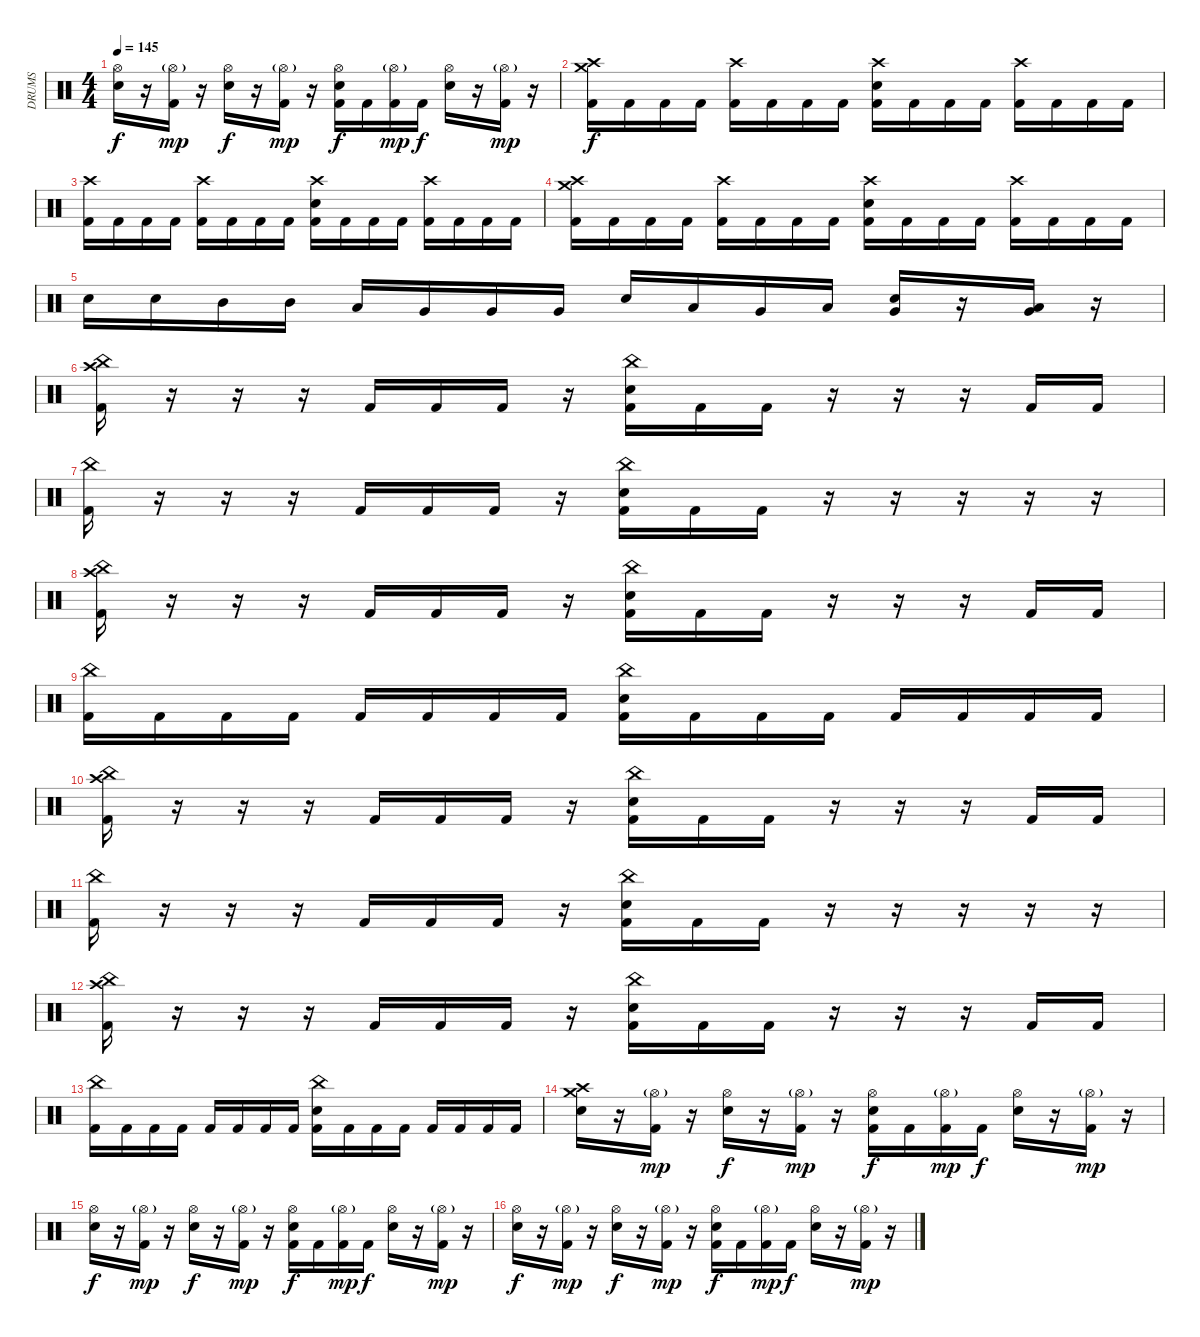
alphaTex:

\track ("DRUMS" "DRUMS") {instrument percussion}
\staff {score}
\articulation defaults
\ts (4 4)
\tempo 145
\clef neutral
\ks c
("Hi-Hat (open)" "Electric Snare (hit)").16{dy f} r.16 ("Hi-Hat (open)"{g} "Kick (hit) 2").16{dy mp} r.16 ("Hi-Hat (open)" "Electric Snare (hit)").16{dy f} r.16 ("Hi-Hat (open)"{g} "Kick (hit) 2").16{dy mp} r.16 ("Hi-Hat (open)" "Electric Snare (hit)" "Kick (hit) 2").16{dy f} "Kick (hit) 2".16 ("Hi-Hat (open)"{g} "Kick (hit) 2").16{dy mp} "Kick (hit) 2".16{dy f} ("Hi-Hat (open)" "Electric Snare (hit)").16 r.16 ("Hi-Hat (open)"{g} "Kick (hit) 2").16{dy mp} r.16 |
("Crash medium (hit)" "Crash high (hit)" "Kick (hit) 2").16{dy f} "Kick (hit) 2".16 "Kick (hit) 2".16 "Kick (hit) 2".16 ("Crash high (hit)" "Kick (hit) 2").16 "Kick (hit) 2".16 "Kick (hit) 2".16 "Kick (hit) 2".16 ("Crash high (hit)" "Electric Snare (hit)" "Kick (hit) 2").16 "Kick (hit) 2".16 "Kick (hit) 2".16 "Kick (hit) 2".16 ("Crash high (hit)" "Kick (hit) 2").16 "Kick (hit) 2".16 "Kick (hit) 2".16 "Kick (hit) 2".16 |
("Crash high (hit)" "Kick (hit) 2").16 "Kick (hit) 2".16 "Kick (hit) 2".16 "Kick (hit) 2".16 ("Crash high (hit)" "Kick (hit) 2").16 "Kick (hit) 2".16 "Kick (hit) 2".16 "Kick (hit) 2".16 ("Crash high (hit)" "Electric Snare (hit)" "Kick (hit) 2").16 "Kick (hit) 2".16 "Kick (hit) 2".16 "Kick (hit) 2".16 ("Crash high (hit)" "Kick (hit) 2").16 "Kick (hit) 2".16 "Kick (hit) 2".16 "Kick (hit) 2".16 |
("Crash high (hit)" "Crash medium (hit)" "Kick (hit) 2").16 "Kick (hit) 2".16 "Kick (hit) 2".16 "Kick (hit) 2".16 ("Crash high (hit)" "Kick (hit) 2").16 "Kick (hit) 2".16 "Kick (hit) 2".16 "Kick (hit) 2".16 ("Crash high (hit)" "Electric Snare (hit)" "Kick (hit) 2").16 "Kick (hit) 2".16 "Kick (hit) 2".16 "Kick (hit) 2".16 ("Crash high (hit)" "Kick (hit) 2").16 "Kick (hit) 2".16 "Kick (hit) 2".16 "Kick (hit) 2".16 |
"Electric Snare (hit)".16 "Electric Snare (hit)".16 "Mid Tom (hit)".16 "Mid Tom (hit)".16 "Low Tom (hit)".16 "Very Low Tom (hit)".16 "Very Low Tom (hit)".16 "Very Low Tom (hit)".16 "Electric Snare (hit)".16 "Low Tom (hit)".16 "Very Low Tom (hit)".16 "Low Floor Tom (hit)".16 ("Very Low Tom (hit)" "Electric Snare (hit)").16 r.16 ("Low Floor Tom (hit)" "Very Low Tom (hit)").16 r.16 |
("Crash high (hit)" "China (hit)" "Kick (hit) 2").16 r.16 r.16 r.16 "Kick (hit) 2".16 "Kick (hit) 2".16 "Kick (hit) 2".16 r.16 ("China (hit)" "Electric Snare (hit)" "Kick (hit) 2").16 "Kick (hit) 2".16 "Kick (hit) 2".16 r.16 r.16 r.16 "Kick (hit) 2".16 "Kick (hit) 2".16 |
("China (hit)" "Kick (hit) 2").16 r.16 r.16 r.16 "Kick (hit) 2".16 "Kick (hit) 2".16 "Kick (hit) 2".16 r.16 ("China (hit)" "Electric Snare (hit)" "Kick (hit) 2").16 "Kick (hit) 2".16 "Kick (hit) 2".16 r.16 r.16 r.16 r.16 r.16 |
("Crash high (hit)" "China (hit)" "Kick (hit) 2").16 r.16 r.16 r.16 "Kick (hit) 2".16 "Kick (hit) 2".16 "Kick (hit) 2".16 r.16 ("China (hit)" "Electric Snare (hit)" "Kick (hit) 2").16 "Kick (hit) 2".16 "Kick (hit) 2".16 r.16 r.16 r.16 "Kick (hit) 2".16 "Kick (hit) 2".16 |
("China (hit)" "Kick (hit) 2").16 "Kick (hit) 2".16 "Kick (hit) 2".16 "Kick (hit) 2".16 "Kick (hit) 2".16 "Kick (hit) 2".16 "Kick (hit) 2".16 "Kick (hit) 2".16 ("China (hit)" "Electric Snare (hit)" "Kick (hit) 2").16 "Kick (hit) 2".16 "Kick (hit) 2".16 "Kick (hit) 2".16 "Kick (hit) 2".16 "Kick (hit) 2".16 "Kick (hit) 2".16 "Kick (hit) 2".16 |
("Crash high (hit)" "China (hit)" "Kick (hit) 2").16 r.16 r.16 r.16 "Kick (hit) 2".16 "Kick (hit) 2".16 "Kick (hit) 2".16 r.16 ("China (hit)" "Electric Snare (hit)" "Kick (hit) 2").16 "Kick (hit) 2".16 "Kick (hit) 2".16 r.16 r.16 r.16 "Kick (hit) 2".16 "Kick (hit) 2".16 |
("China (hit)" "Kick (hit) 2").16 r.16 r.16 r.16 "Kick (hit) 2".16 "Kick (hit) 2".16 "Kick (hit) 2".16 r.16 ("China (hit)" "Electric Snare (hit)" "Kick (hit) 2").16 "Kick (hit) 2".16 "Kick (hit) 2".16 r.16 r.16 r.16 r.16 r.16 |
("Crash high (hit)" "China (hit)" "Kick (hit) 2").16 r.16 r.16 r.16 "Kick (hit) 2".16 "Kick (hit) 2".16 "Kick (hit) 2".16 r.16 ("China (hit)" "Electric Snare (hit)" "Kick (hit) 2").16 "Kick (hit) 2".16 "Kick (hit) 2".16 r.16 r.16 r.16 "Kick (hit) 2".16 "Kick (hit) 2".16 |
("China (hit)" "Kick (hit) 2").16 "Kick (hit) 2".16 "Kick (hit) 2".16 "Kick (hit) 2".16 "Kick (hit) 2".16 "Kick (hit) 2".16 "Kick (hit) 2".16 "Kick (hit) 2".16 ("China (hit)" "Electric Snare (hit)" "Kick (hit) 2").16 "Kick (hit) 2".16 "Kick (hit) 2".16 "Kick (hit) 2".16 "Kick (hit) 2".16 "Kick (hit) 2".16 "Kick (hit) 2".16 "Kick (hit) 2".16 |
("Crash high (hit)" "Crash medium (hit)" "Electric Snare (hit)").16 r.16 ("Hi-Hat (open)"{g} "Kick (hit) 2").16{dy mp} r.16 ("Hi-Hat (open)" "Electric Snare (hit)").16{dy f} r.16 ("Hi-Hat (open)"{g} "Kick (hit) 2").16{dy mp} r.16 ("Hi-Hat (open)" "Electric Snare (hit)" "Kick (hit) 2").16{dy f} "Kick (hit) 2".16 ("Hi-Hat (open)"{g} "Kick (hit) 2").16{dy mp} "Kick (hit) 2".16{dy f} ("Hi-Hat (open)" "Electric Snare (hit)").16 r.16 ("Hi-Hat (open)"{g} "Kick (hit) 2").16{dy mp} r.16 |
("Hi-Hat (open)" "Electric Snare (hit)").16{dy f} r.16 ("Hi-Hat (open)"{g} "Kick (hit) 2").16{dy mp} r.16 ("Hi-Hat (open)" "Electric Snare (hit)").16{dy f} r.16 ("Hi-Hat (open)"{g} "Kick (hit) 2").16{dy mp} r.16 ("Hi-Hat (open)" "Electric Snare (hit)" "Kick (hit) 2").16{dy f} "Kick (hit) 2".16 ("Hi-Hat (open)"{g} "Kick (hit) 2").16{dy mp} "Kick (hit) 2".16{dy f} ("Hi-Hat (open)" "Electric Snare (hit)").16 r.16 ("Hi-Hat (open)"{g} "Kick (hit) 2").16{dy mp} r.16 |
("Hi-Hat (open)" "Electric Snare (hit)").16{dy f} r.16 ("Hi-Hat (open)"{g} "Kick (hit) 2").16{dy mp} r.16 ("Hi-Hat (open)" "Electric Snare (hit)").16{dy f} r.16 ("Hi-Hat (open)"{g} "Kick (hit) 2").16{dy mp} r.16 ("Hi-Hat (open)" "Electric Snare (hit)" "Kick (hit) 2").16{dy f} "Kick (hit) 2".16 ("Hi-Hat (open)"{g} "Kick (hit) 2").16{dy mp} "Kick (hit) 2".16{dy f} ("Hi-Hat (open)" "Electric Snare (hit)").16 r.16 ("Hi-Hat (open)"{g} "Kick (hit) 2").16{dy mp} r.16
